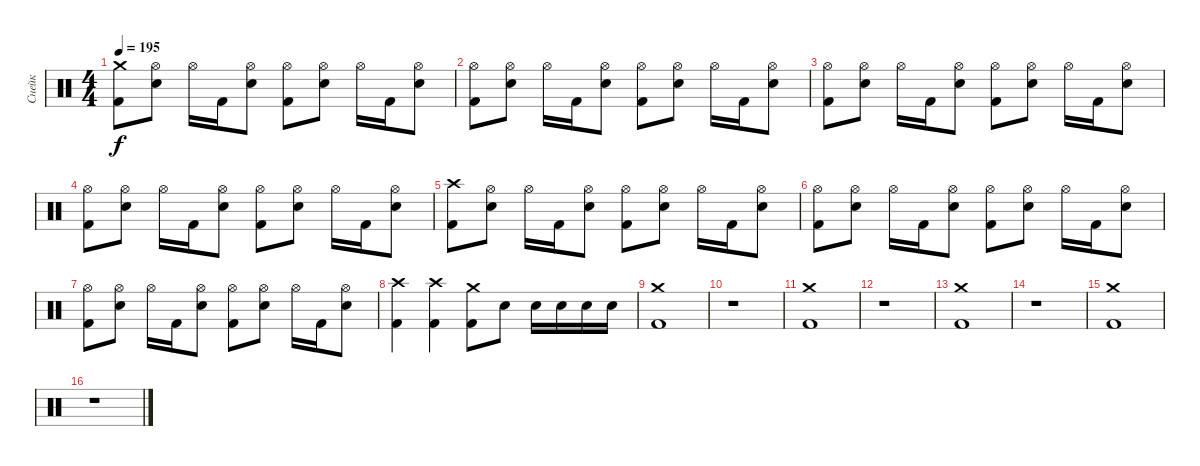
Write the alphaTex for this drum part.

\track ("Снейк" "Снейк") {instrument percussion}
\staff {score}
\articulation defaults
\ts (4 4)
\tempo 195
\clef neutral
\ks c
("Kick (hit) 2" "Crash medium (hit)").8{dy f} ("Electric Snare (hit)" "Hi-Hat (open)").8 "Hi-Hat (open)".16 "Kick (hit) 2".16 ("Electric Snare (hit)" "Hi-Hat (open)").8 ("Kick (hit) 2" "Hi-Hat (open)").8 ("Electric Snare (hit)" "Hi-Hat (open)").8 "Hi-Hat (open)".16 "Kick (hit) 2".16 ("Electric Snare (hit)" "Hi-Hat (open)").8 |
("Kick (hit) 2" "Hi-Hat (open)").8 ("Electric Snare (hit)" "Hi-Hat (open)").8 "Hi-Hat (open)".16 "Kick (hit) 2".16 ("Electric Snare (hit)" "Hi-Hat (open)").8 ("Kick (hit) 2" "Hi-Hat (open)").8 ("Electric Snare (hit)" "Hi-Hat (open)").8 "Hi-Hat (open)".16 "Kick (hit) 2".16 ("Electric Snare (hit)" "Hi-Hat (open)").8 |
("Kick (hit) 2" "Hi-Hat (open)").8 ("Electric Snare (hit)" "Hi-Hat (open)").8 "Hi-Hat (open)".16 "Kick (hit) 2".16 ("Electric Snare (hit)" "Hi-Hat (open)").8 ("Kick (hit) 2" "Hi-Hat (open)").8 ("Electric Snare (hit)" "Hi-Hat (open)").8 "Hi-Hat (open)".16 "Kick (hit) 2".16 ("Electric Snare (hit)" "Hi-Hat (open)").8 |
("Kick (hit) 2" "Hi-Hat (open)").8 ("Electric Snare (hit)" "Hi-Hat (open)").8 "Hi-Hat (open)".16 "Kick (hit) 2".16 ("Electric Snare (hit)" "Hi-Hat (open)").8 ("Kick (hit) 2" "Hi-Hat (open)").8 ("Electric Snare (hit)" "Hi-Hat (open)").8 "Hi-Hat (open)".16 "Kick (hit) 2".16 ("Electric Snare (hit)" "Hi-Hat (open)").8 |
("Kick (hit) 2" "Crash high (hit)").8 ("Electric Snare (hit)" "Hi-Hat (open)").8 "Hi-Hat (open)".16 "Kick (hit) 2".16 ("Electric Snare (hit)" "Hi-Hat (open)").8 ("Kick (hit) 2" "Hi-Hat (open)").8 ("Electric Snare (hit)" "Hi-Hat (open)").8 "Hi-Hat (open)".16 "Kick (hit) 2".16 ("Electric Snare (hit)" "Hi-Hat (open)").8 |
("Kick (hit) 2" "Hi-Hat (open)").8 ("Electric Snare (hit)" "Hi-Hat (open)").8 "Hi-Hat (open)".16 "Kick (hit) 2".16 ("Electric Snare (hit)" "Hi-Hat (open)").8 ("Kick (hit) 2" "Hi-Hat (open)").8 ("Electric Snare (hit)" "Hi-Hat (open)").8 "Hi-Hat (open)".16 "Kick (hit) 2".16 ("Electric Snare (hit)" "Hi-Hat (open)").8 |
("Kick (hit) 2" "Hi-Hat (open)").8 ("Electric Snare (hit)" "Hi-Hat (open)").8 "Hi-Hat (open)".16 "Kick (hit) 2".16 ("Electric Snare (hit)" "Hi-Hat (open)").8 ("Kick (hit) 2" "Hi-Hat (open)").8 ("Electric Snare (hit)" "Hi-Hat (open)").8 "Hi-Hat (open)".16 "Kick (hit) 2".16 ("Electric Snare (hit)" "Hi-Hat (open)").8 |
("Crash high (hit)" "Kick (hit) 2").4 ("Crash high (hit)" "Kick (hit) 2").4 ("Crash medium (hit)" "Kick (hit) 2").8 "Electric Snare (hit)".8 "Electric Snare (hit)".16 "Electric Snare (hit)".16 "Electric Snare (hit)".16 "Electric Snare (hit)".16 |
("Crash medium (hit)" "Kick (hit) 2").1 |
r.1 |
("Crash medium (hit)" "Kick (hit) 2").1 |
r.1 |
("Crash medium (hit)" "Kick (hit) 2").1 |
r.1 |
("Crash medium (hit)" "Kick (hit) 2").1 |
r.1
